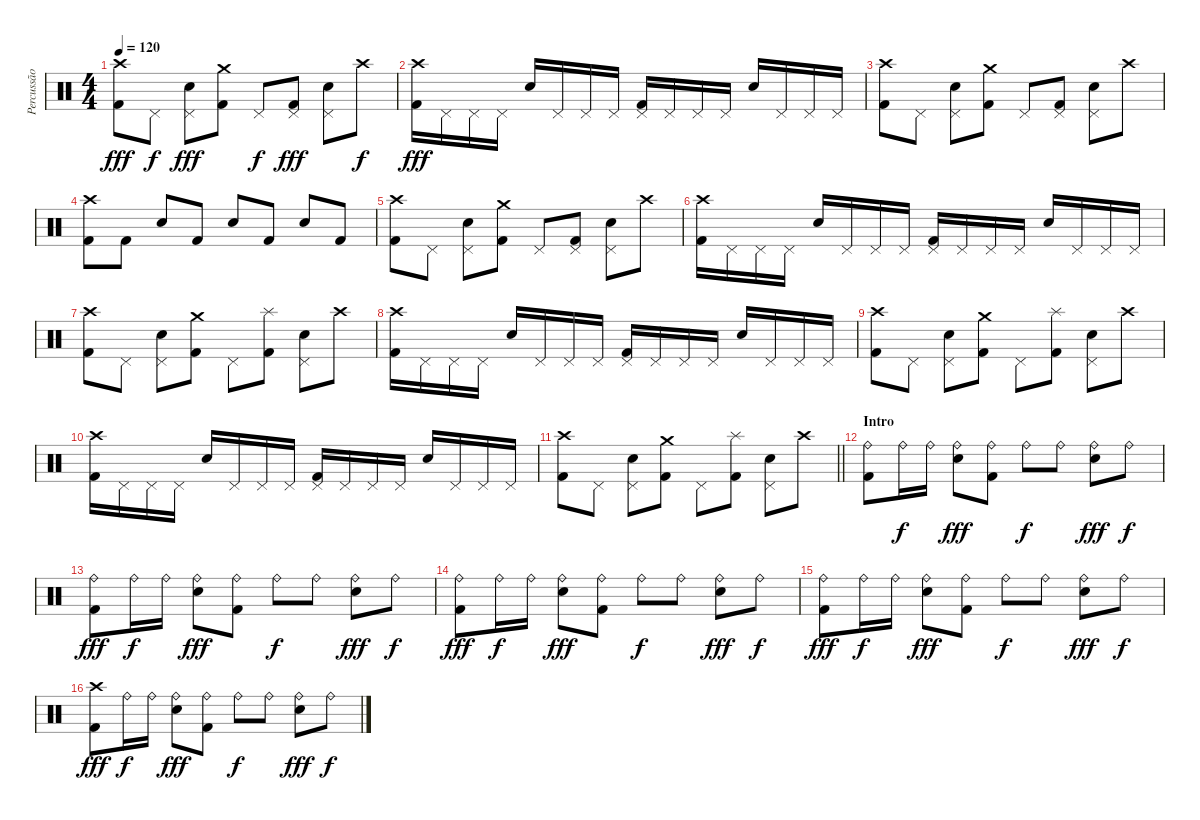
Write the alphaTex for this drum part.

\track ("Percussão" "Percussão") {instrument percussion}
\staff {score}
\articulation defaults
\ts (4 4)
\tempo 120
\clef neutral
\ks c
("Crash high (hit)" "Kick (hit) 2").8{dy fff} "Pedal Hi-Hat (hit)".8{dy f} ("Pedal Hi-Hat (hit)" "Electric Snare (hit)").8{dy fff} ("Crash medium (hit)" "Kick (hit) 2").8 "Pedal Hi-Hat (hit)".8{dy f} ("Pedal Hi-Hat (hit)" "Kick (hit) 2").8{dy fff} ("Pedal Hi-Hat (hit)" "Electric Snare (hit)").8 "Crash high (hit)".8{dy f} |
("Crash high (hit)" "Kick (hit) 2").16{dy fff} "Pedal Hi-Hat (hit)".16 "Pedal Hi-Hat (hit)".16 "Pedal Hi-Hat (hit)".16 "Electric Snare (hit)".16 "Pedal Hi-Hat (hit)".16 "Pedal Hi-Hat (hit)".16 "Pedal Hi-Hat (hit)".16 ("Pedal Hi-Hat (hit)" "Kick (hit) 2").16 "Pedal Hi-Hat (hit)".16 "Pedal Hi-Hat (hit)".16 "Pedal Hi-Hat (hit)".16 "Electric Snare (hit)".16 "Pedal Hi-Hat (hit)".16 "Pedal Hi-Hat (hit)".16 "Pedal Hi-Hat (hit)".16 |
("Crash high (hit)" "Kick (hit) 2").8 "Pedal Hi-Hat (hit)".8 ("Pedal Hi-Hat (hit)" "Electric Snare (hit)").8 ("Crash medium (hit)" "Kick (hit) 2").8 "Pedal Hi-Hat (hit)".8 ("Pedal Hi-Hat (hit)" "Kick (hit) 2").8 ("Pedal Hi-Hat (hit)" "Electric Snare (hit)").8 "Crash high (hit)".8 |
("Crash high (hit)" "Kick (hit) 2").8 "Kick (hit) 2".8 "Electric Snare (hit)".8 "Kick (hit) 2".8 "Electric Snare (hit)".8 "Kick (hit) 2".8 "Electric Snare (hit)".8 "Kick (hit) 2".8 |
("Crash high (hit)" "Kick (hit) 2").8 "Pedal Hi-Hat (hit)".8 ("Pedal Hi-Hat (hit)" "Electric Snare (hit)").8 ("Crash medium (hit)" "Kick (hit) 2").8 "Pedal Hi-Hat (hit)".8 ("Pedal Hi-Hat (hit)" "Kick (hit) 2").8 ("Pedal Hi-Hat (hit)" "Electric Snare (hit)").8 "Crash high (hit)".8 |
("Crash high (hit)" "Kick (hit) 2").16 "Pedal Hi-Hat (hit)".16 "Pedal Hi-Hat (hit)".16 "Pedal Hi-Hat (hit)".16 "Electric Snare (hit)".16 "Pedal Hi-Hat (hit)".16 "Pedal Hi-Hat (hit)".16 "Pedal Hi-Hat (hit)".16 ("Pedal Hi-Hat (hit)" "Kick (hit) 2").16 "Pedal Hi-Hat (hit)".16 "Pedal Hi-Hat (hit)".16 "Pedal Hi-Hat (hit)".16 "Electric Snare (hit)".16 "Pedal Hi-Hat (hit)".16 "Pedal Hi-Hat (hit)".16 "Pedal Hi-Hat (hit)".16 |
("Crash high (hit)" "Kick (hit) 2").8 "Pedal Hi-Hat (hit)".8 ("Pedal Hi-Hat (hit)" "Electric Snare (hit)").8 ("Crash medium (hit)" "Kick (hit) 2").8 "Pedal Hi-Hat (hit)".8 ("Splash (hit)" "Kick (hit) 2").8 ("Pedal Hi-Hat (hit)" "Electric Snare (hit)").8 "Crash high (hit)".8 |
("Crash high (hit)" "Kick (hit) 2").16 "Pedal Hi-Hat (hit)".16 "Pedal Hi-Hat (hit)".16 "Pedal Hi-Hat (hit)".16 "Electric Snare (hit)".16 "Pedal Hi-Hat (hit)".16 "Pedal Hi-Hat (hit)".16 "Pedal Hi-Hat (hit)".16 ("Pedal Hi-Hat (hit)" "Kick (hit) 2").16 "Pedal Hi-Hat (hit)".16 "Pedal Hi-Hat (hit)".16 "Pedal Hi-Hat (hit)".16 "Electric Snare (hit)".16 "Pedal Hi-Hat (hit)".16 "Pedal Hi-Hat (hit)".16 "Pedal Hi-Hat (hit)".16 |
("Crash high (hit)" "Kick (hit) 2").8 "Pedal Hi-Hat (hit)".8 ("Pedal Hi-Hat (hit)" "Electric Snare (hit)").8 ("Crash medium (hit)" "Kick (hit) 2").8 "Pedal Hi-Hat (hit)".8 ("Splash (hit)" "Kick (hit) 2").8 ("Pedal Hi-Hat (hit)" "Electric Snare (hit)").8 "Crash high (hit)".8 |
("Crash high (hit)" "Kick (hit) 2").16 "Pedal Hi-Hat (hit)".16 "Pedal Hi-Hat (hit)".16 "Pedal Hi-Hat (hit)".16 "Electric Snare (hit)".16 "Pedal Hi-Hat (hit)".16 "Pedal Hi-Hat (hit)".16 "Pedal Hi-Hat (hit)".16 ("Pedal Hi-Hat (hit)" "Kick (hit) 2").16 "Pedal Hi-Hat (hit)".16 "Pedal Hi-Hat (hit)".16 "Pedal Hi-Hat (hit)".16 "Electric Snare (hit)".16 "Pedal Hi-Hat (hit)".16 "Pedal Hi-Hat (hit)".16 "Pedal Hi-Hat (hit)".16 |
\barLineRight lightlight
("Crash high (hit)" "Kick (hit) 2").8 "Pedal Hi-Hat (hit)".8 ("Pedal Hi-Hat (hit)" "Electric Snare (hit)").8 ("Crash medium (hit)" "Kick (hit) 2").8 "Pedal Hi-Hat (hit)".8 ("Splash (hit)" "Kick (hit) 2").8 ("Pedal Hi-Hat (hit)" "Electric Snare (hit)").8 "Crash high (hit)".8 |
\section ("" "Intro")
("Ride (bell)" "Kick (hit) 2").8 "Ride (bell)".16{dy f} "Ride (bell)".16 ("Ride (bell)" "Electric Snare (hit)").8{dy fff} ("Ride (bell)" "Kick (hit) 2").8 "Ride (bell)".8{dy f} "Ride (bell)".8 ("Ride (bell)" "Electric Snare (hit)").8{dy fff} "Ride (bell)".8{dy f} |
("Ride (bell)" "Kick (hit) 2").8{dy fff} "Ride (bell)".16{dy f} "Ride (bell)".16 ("Ride (bell)" "Electric Snare (hit)").8{dy fff} ("Ride (bell)" "Kick (hit) 2").8 "Ride (bell)".8{dy f} "Ride (bell)".8 ("Ride (bell)" "Electric Snare (hit)").8{dy fff} "Ride (bell)".8{dy f} |
("Ride (bell)" "Kick (hit) 2").8{dy fff} "Ride (bell)".16{dy f} "Ride (bell)".16 ("Ride (bell)" "Electric Snare (hit)").8{dy fff} ("Ride (bell)" "Kick (hit) 2").8 "Ride (bell)".8{dy f} "Ride (bell)".8 ("Ride (bell)" "Electric Snare (hit)").8{dy fff} "Ride (bell)".8{dy f} |
("Ride (bell)" "Kick (hit) 2").8{dy fff} "Ride (bell)".16{dy f} "Ride (bell)".16 ("Ride (bell)" "Electric Snare (hit)").8{dy fff} ("Ride (bell)" "Kick (hit) 2").8 "Ride (bell)".8{dy f} "Ride (bell)".8 ("Ride (bell)" "Electric Snare (hit)").8{dy fff} "Ride (bell)".8{dy f} |
("Crash high (hit)" "Kick (hit) 2").8{dy fff} "Ride (bell)".16{dy f} "Ride (bell)".16 ("Ride (bell)" "Electric Snare (hit)").8{dy fff} ("Ride (bell)" "Kick (hit) 2").8 "Ride (bell)".8{dy f} "Ride (bell)".8 ("Ride (bell)" "Electric Snare (hit)").8{dy fff} "Ride (bell)".8{dy f}
